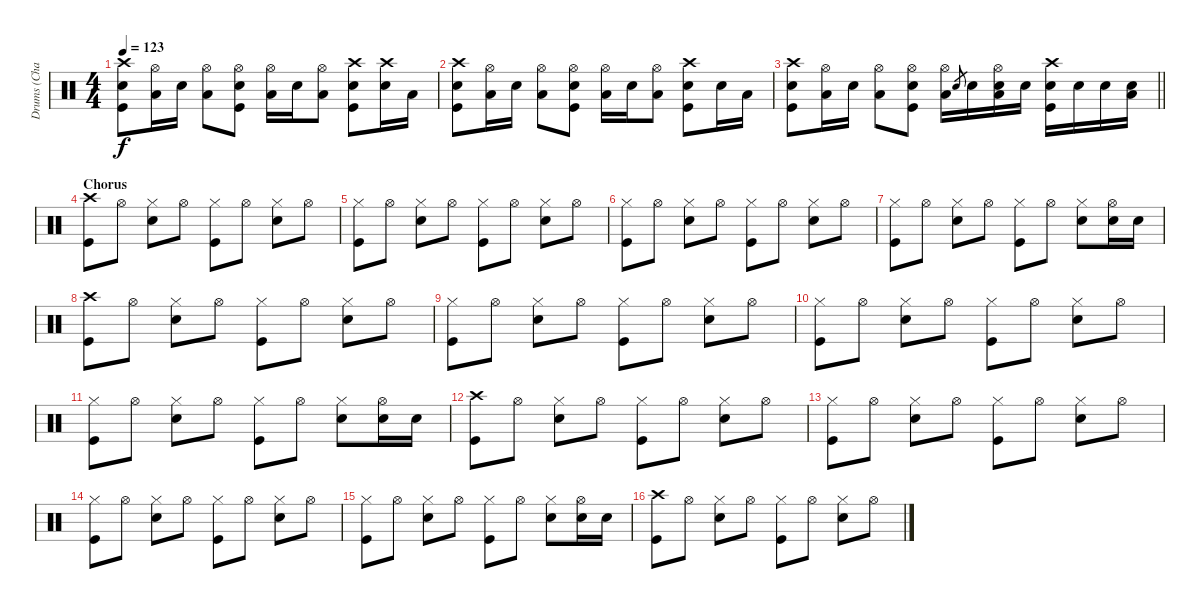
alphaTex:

\track ("Drums (Chad Smith)" "Drums (Cha") {instrument percussion}
\staff {score}
\articulation defaults
\ts (4 4)
\tempo 123
\clef neutral
\ks c
("Crash high (hit)" "Snare (hit) 2" "Kick (hit)").8{dy f} ("Hi-Hat (open)" "Low Floor Tom (hit)").16 "Snare (hit) 2".16 ("Hi-Hat (open)" "Low Floor Tom (hit)").8 ("Hi-Hat (open)" "Snare (hit) 2" "Kick (hit)").8 ("Hi-Hat (open)" "Low Floor Tom (hit)").16 "Snare (hit) 2".16 ("Hi-Hat (open)" "Low Floor Tom (hit)").8 ("Crash high (hit)" "Snare (hit) 2" "Kick (hit)").8 ("Crash high (hit)" "Snare (hit) 2").16 "Low Floor Tom (hit)".16 |
("Crash high (hit)" "Snare (hit) 2" "Kick (hit)").8 ("Hi-Hat (open)" "Low Floor Tom (hit)").16 "Snare (hit) 2".16 ("Hi-Hat (open)" "Low Floor Tom (hit)").8 ("Hi-Hat (open)" "Snare (hit) 2" "Kick (hit)").8 ("Hi-Hat (open)" "Low Floor Tom (hit)").16 "Snare (hit) 2".16 ("Hi-Hat (open)" "Low Floor Tom (hit)").8 ("Crash high (hit)" "Snare (hit) 2" "Kick (hit)").8 "Snare (hit) 2".16 "Low Floor Tom (hit)".16 |
\barLineRight lightlight
("Crash high (hit)" "Snare (hit) 2" "Kick (hit)").8 ("Hi-Hat (open)" "Low Floor Tom (hit)").16 "Snare (hit) 2".16 ("Hi-Hat (open)" "Low Floor Tom (hit)").8 ("Hi-Hat (open)" "Snare (hit) 2" "Kick (hit)").8 ("Hi-Hat (open)" "Low Floor Tom (hit)").16 "Snare (hit) 2".8{gr} "Snare (hit) 2".16 ("Hi-Hat (open)" "Snare (hit) 2" "Low Floor Tom (hit)").16 "Snare (hit) 2".16 ("Crash high (hit)" "Snare (hit) 2" "Kick (hit)").16 "Snare (hit) 2".16 "Snare (hit) 2".16 ("Snare (hit) 2" "Low Floor Tom (hit)").16 |
\section ("" "Chorus")
("Crash high (hit)" "Kick (hit)").8 "Hi-Hat (open)".8 ("Hi-Hat (closed)" "Snare (hit) 2").8 "Hi-Hat (open)".8 ("Hi-Hat (closed)" "Kick (hit)").8 "Hi-Hat (open)".8 ("Hi-Hat (closed)" "Snare (hit) 2").8 "Hi-Hat (open)".8 |
("Hi-Hat (closed)" "Kick (hit)").8 "Hi-Hat (open)".8 ("Hi-Hat (closed)" "Snare (hit) 2").8 "Hi-Hat (open)".8 ("Hi-Hat (closed)" "Kick (hit)").8 "Hi-Hat (open)".8 ("Hi-Hat (closed)" "Snare (hit) 2").8 "Hi-Hat (open)".8 |
("Hi-Hat (closed)" "Kick (hit)").8 "Hi-Hat (open)".8 ("Hi-Hat (closed)" "Snare (hit) 2").8 "Hi-Hat (open)".8 ("Hi-Hat (closed)" "Kick (hit)").8 "Hi-Hat (open)".8 ("Hi-Hat (closed)" "Snare (hit) 2").8 "Hi-Hat (open)".8 |
("Hi-Hat (closed)" "Kick (hit)").8 "Hi-Hat (open)".8 ("Hi-Hat (closed)" "Snare (hit) 2").8 "Hi-Hat (open)".8 ("Hi-Hat (closed)" "Kick (hit)").8 "Hi-Hat (open)".8 ("Hi-Hat (closed)" "Snare (hit) 2").8 ("Hi-Hat (open)" "Snare (hit) 2").16 "Snare (hit) 2".16 |
("Crash high (hit)" "Kick (hit)").8 "Hi-Hat (open)".8 ("Hi-Hat (closed)" "Snare (hit) 2").8 "Hi-Hat (open)".8 ("Hi-Hat (closed)" "Kick (hit)").8 "Hi-Hat (open)".8 ("Hi-Hat (closed)" "Snare (hit) 2").8 "Hi-Hat (open)".8 |
("Hi-Hat (closed)" "Kick (hit)").8 "Hi-Hat (open)".8 ("Hi-Hat (closed)" "Snare (hit) 2").8 "Hi-Hat (open)".8 ("Hi-Hat (closed)" "Kick (hit)").8 "Hi-Hat (open)".8 ("Hi-Hat (closed)" "Snare (hit) 2").8 "Hi-Hat (open)".8 |
("Hi-Hat (closed)" "Kick (hit)").8 "Hi-Hat (open)".8 ("Hi-Hat (closed)" "Snare (hit) 2").8 "Hi-Hat (open)".8 ("Hi-Hat (closed)" "Kick (hit)").8 "Hi-Hat (open)".8 ("Hi-Hat (closed)" "Snare (hit) 2").8 "Hi-Hat (open)".8 |
("Hi-Hat (closed)" "Kick (hit)").8 "Hi-Hat (open)".8 ("Hi-Hat (closed)" "Snare (hit) 2").8 "Hi-Hat (open)".8 ("Hi-Hat (closed)" "Kick (hit)").8 "Hi-Hat (open)".8 ("Hi-Hat (closed)" "Snare (hit) 2").8 ("Hi-Hat (open)" "Snare (hit) 2").16 "Snare (hit) 2".16 |
("Crash high (hit)" "Kick (hit)").8 "Hi-Hat (open)".8 ("Hi-Hat (closed)" "Snare (hit) 2").8 "Hi-Hat (open)".8 ("Hi-Hat (closed)" "Kick (hit)").8 "Hi-Hat (open)".8 ("Hi-Hat (closed)" "Snare (hit) 2").8 "Hi-Hat (open)".8 |
("Hi-Hat (closed)" "Kick (hit)").8 "Hi-Hat (open)".8 ("Hi-Hat (closed)" "Snare (hit) 2").8 "Hi-Hat (open)".8 ("Hi-Hat (closed)" "Kick (hit)").8 "Hi-Hat (open)".8 ("Hi-Hat (closed)" "Snare (hit) 2").8 "Hi-Hat (open)".8 |
("Hi-Hat (closed)" "Kick (hit)").8 "Hi-Hat (open)".8 ("Hi-Hat (closed)" "Snare (hit) 2").8 "Hi-Hat (open)".8 ("Hi-Hat (closed)" "Kick (hit)").8 "Hi-Hat (open)".8 ("Hi-Hat (closed)" "Snare (hit) 2").8 "Hi-Hat (open)".8 |
("Hi-Hat (closed)" "Kick (hit)").8 "Hi-Hat (open)".8 ("Hi-Hat (closed)" "Snare (hit) 2").8 "Hi-Hat (open)".8 ("Hi-Hat (closed)" "Kick (hit)").8 "Hi-Hat (open)".8 ("Hi-Hat (closed)" "Snare (hit) 2").8 ("Hi-Hat (open)" "Snare (hit) 2").16 "Snare (hit) 2".16 |
("Crash high (hit)" "Kick (hit)").8 "Hi-Hat (open)".8 ("Hi-Hat (closed)" "Snare (hit) 2").8 "Hi-Hat (open)".8 ("Hi-Hat (closed)" "Kick (hit)").8 "Hi-Hat (open)".8 ("Hi-Hat (closed)" "Snare (hit) 2").8 "Hi-Hat (open)".8
